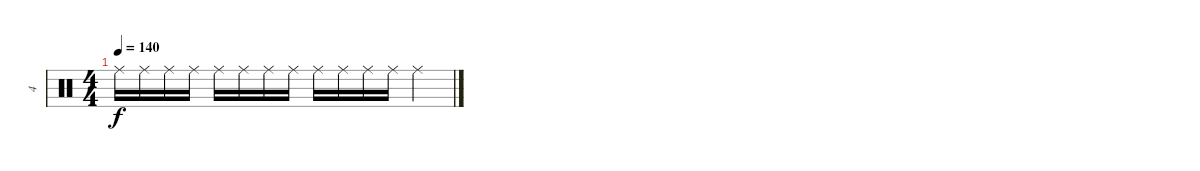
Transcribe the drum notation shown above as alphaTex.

\track ("4" "4") {instrument percussion}
\staff {score}
\articulation defaults
\ts (4 4)
\tempo 140
\clef neutral
\ks c "Ride (middle)".16{dy f} "Ride (middle)".16 "Ride (middle)".16 "Ride (middle)".16 "Ride (middle)".16 "Ride (middle)".16 "Ride (middle)".16 "Ride (middle)".16 "Ride (middle)".16 "Ride (middle)".16 "Ride (middle)".16 "Ride (middle)".16 "Ride (middle)".4
